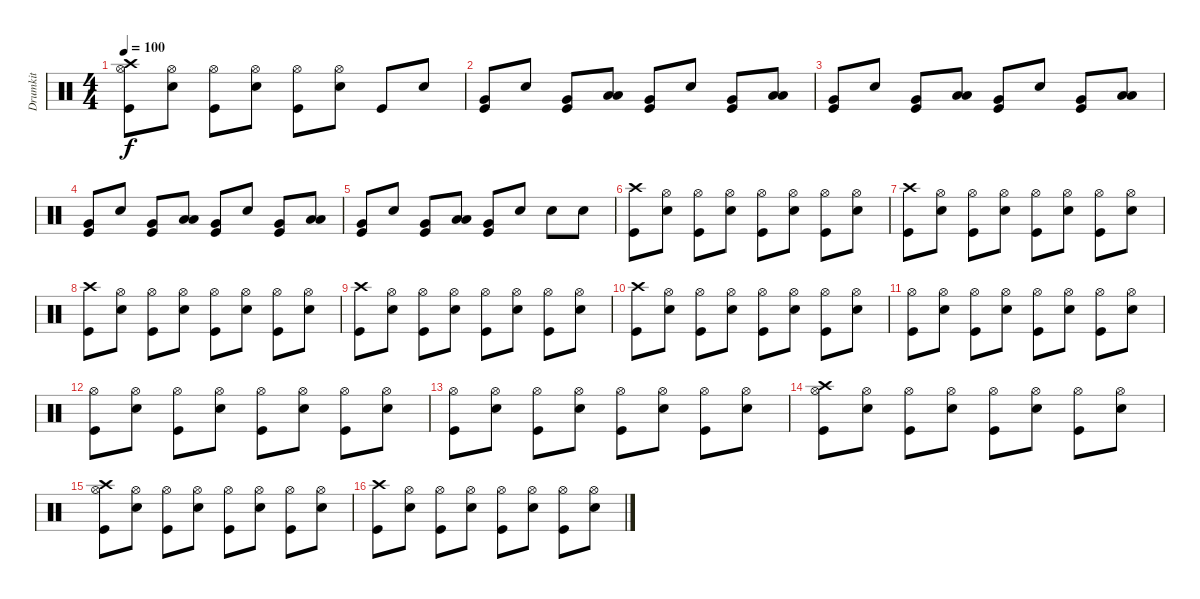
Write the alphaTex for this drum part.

\track ("Drumkit" "Drumkit") {instrument percussion}
\staff {score}
\articulation defaults
\ts (4 4)
\tempo 100
\clef neutral
\ks c
("Hi-Hat (open)" "Kick (hit)" "Crash high (hit)").8{dy f} ("Hi-Hat (open)" "Snare (hit) 2").8 ("Hi-Hat (open)" "Kick (hit)").8 ("Hi-Hat (open)" "Snare (hit) 2").8 ("Hi-Hat (open)" "Kick (hit)").8 ("Hi-Hat (open)" "Snare (hit) 2").8 "Kick (hit)".8 "Snare (hit) 2".8 |
("Kick (hit)" "Very Low Tom (hit)").8 "Snare (hit) 2".8 ("Kick (hit)" "Very Low Tom (hit)").8 ("Low Floor Tom (hit)" "Low Tom (hit)").8 ("Kick (hit)" "Very Low Tom (hit)").8 "Snare (hit) 2".8 ("Kick (hit)" "Very Low Tom (hit)").8 ("Low Floor Tom (hit)" "Low Tom (hit)").8 |
("Kick (hit)" "Very Low Tom (hit)").8 "Snare (hit) 2".8 ("Kick (hit)" "Very Low Tom (hit)").8 ("Low Floor Tom (hit)" "Low Tom (hit)").8 ("Kick (hit)" "Very Low Tom (hit)").8 "Snare (hit) 2".8 ("Kick (hit)" "Very Low Tom (hit)").8 ("Low Floor Tom (hit)" "Low Tom (hit)").8 |
("Kick (hit)" "Very Low Tom (hit)").8 "Snare (hit) 2".8 ("Kick (hit)" "Very Low Tom (hit)").8 ("Low Floor Tom (hit)" "Low Tom (hit)").8 ("Kick (hit)" "Very Low Tom (hit)").8 "Snare (hit) 2".8 ("Kick (hit)" "Very Low Tom (hit)").8 ("Low Floor Tom (hit)" "Low Tom (hit)").8 |
("Kick (hit)" "Very Low Tom (hit)").8 "Snare (hit) 2".8 ("Kick (hit)" "Very Low Tom (hit)").8 ("Low Floor Tom (hit)" "Low Tom (hit)").8 ("Kick (hit)" "Very Low Tom (hit)").8 "Snare (hit) 2".8 "Snare (hit) 2".8 "Snare (hit) 2".8 |
("Kick (hit)" "Crash high (hit)").8 ("Hi-Hat (open)" "Snare (hit) 2").8 ("Hi-Hat (open)" "Kick (hit)").8 ("Hi-Hat (open)" "Snare (hit) 2").8 ("Hi-Hat (open)" "Kick (hit)").8 ("Hi-Hat (open)" "Snare (hit) 2").8 ("Hi-Hat (open)" "Kick (hit)").8 ("Hi-Hat (open)" "Snare (hit) 2").8 |
("Kick (hit)" "Crash high (hit)").8 ("Hi-Hat (open)" "Snare (hit) 2").8 ("Hi-Hat (open)" "Kick (hit)").8 ("Hi-Hat (open)" "Snare (hit) 2").8 ("Hi-Hat (open)" "Kick (hit)").8 ("Hi-Hat (open)" "Snare (hit) 2").8 ("Hi-Hat (open)" "Kick (hit)").8 ("Hi-Hat (open)" "Snare (hit) 2").8 |
("Kick (hit)" "Crash high (hit)").8 ("Hi-Hat (open)" "Snare (hit) 2").8 ("Hi-Hat (open)" "Kick (hit)").8 ("Hi-Hat (open)" "Snare (hit) 2").8 ("Hi-Hat (open)" "Kick (hit)").8 ("Hi-Hat (open)" "Snare (hit) 2").8 ("Hi-Hat (open)" "Kick (hit)").8 ("Hi-Hat (open)" "Snare (hit) 2").8 |
("Kick (hit)" "Crash high (hit)").8 ("Hi-Hat (open)" "Snare (hit) 2").8 ("Hi-Hat (open)" "Kick (hit)").8 ("Hi-Hat (open)" "Snare (hit) 2").8 ("Hi-Hat (open)" "Kick (hit)").8 ("Hi-Hat (open)" "Snare (hit) 2").8 ("Hi-Hat (open)" "Kick (hit)").8 ("Hi-Hat (open)" "Snare (hit) 2").8 |
("Kick (hit)" "Crash high (hit)").8 ("Hi-Hat (open)" "Snare (hit) 2").8 ("Hi-Hat (open)" "Kick (hit)").8 ("Hi-Hat (open)" "Snare (hit) 2").8 ("Hi-Hat (open)" "Kick (hit)").8 ("Hi-Hat (open)" "Snare (hit) 2").8 ("Hi-Hat (open)" "Kick (hit)").8 ("Hi-Hat (open)" "Snare (hit) 2").8 |
("Hi-Hat (open)" "Kick (hit)").8 ("Hi-Hat (open)" "Snare (hit) 2").8 ("Hi-Hat (open)" "Kick (hit)").8 ("Hi-Hat (open)" "Snare (hit) 2").8 ("Hi-Hat (open)" "Kick (hit)").8 ("Hi-Hat (open)" "Snare (hit) 2").8 ("Hi-Hat (open)" "Kick (hit)").8 ("Hi-Hat (open)" "Snare (hit) 2").8 |
("Hi-Hat (open)" "Kick (hit)").8 ("Hi-Hat (open)" "Snare (hit) 2").8 ("Hi-Hat (open)" "Kick (hit)").8 ("Hi-Hat (open)" "Snare (hit) 2").8 ("Hi-Hat (open)" "Kick (hit)").8 ("Hi-Hat (open)" "Snare (hit) 2").8 ("Hi-Hat (open)" "Kick (hit)").8 ("Hi-Hat (open)" "Snare (hit) 2").8 |
("Hi-Hat (open)" "Kick (hit)").8 ("Hi-Hat (open)" "Snare (hit) 2").8 ("Hi-Hat (open)" "Kick (hit)").8 ("Hi-Hat (open)" "Snare (hit) 2").8 ("Hi-Hat (open)" "Kick (hit)").8 ("Hi-Hat (open)" "Snare (hit) 2").8 ("Hi-Hat (open)" "Kick (hit)").8 ("Hi-Hat (open)" "Snare (hit) 2").8 |
("Kick (hit)" "Hi-Hat (open)" "Crash high (hit)").8 ("Hi-Hat (open)" "Snare (hit) 2").8 ("Hi-Hat (open)" "Kick (hit)").8 ("Hi-Hat (open)" "Snare (hit) 2").8 ("Hi-Hat (open)" "Kick (hit)").8 ("Hi-Hat (open)" "Snare (hit) 2").8 ("Hi-Hat (open)" "Kick (hit)").8 ("Hi-Hat (open)" "Snare (hit) 2").8 |
("Hi-Hat (open)" "Kick (hit)" "Crash high (hit)").8 ("Hi-Hat (open)" "Snare (hit) 2").8 ("Hi-Hat (open)" "Kick (hit)").8 ("Hi-Hat (open)" "Snare (hit) 2").8 ("Hi-Hat (open)" "Kick (hit)").8 ("Hi-Hat (open)" "Snare (hit) 2").8 ("Hi-Hat (open)" "Kick (hit)").8 ("Hi-Hat (open)" "Snare (hit) 2").8 |
("Kick (hit)" "Crash high (hit)").8 ("Hi-Hat (open)" "Snare (hit) 2").8 ("Hi-Hat (open)" "Kick (hit)").8 ("Hi-Hat (open)" "Snare (hit) 2").8 ("Hi-Hat (open)" "Kick (hit)").8 ("Hi-Hat (open)" "Snare (hit) 2").8 ("Hi-Hat (open)" "Kick (hit)").8 ("Hi-Hat (open)" "Snare (hit) 2").8
